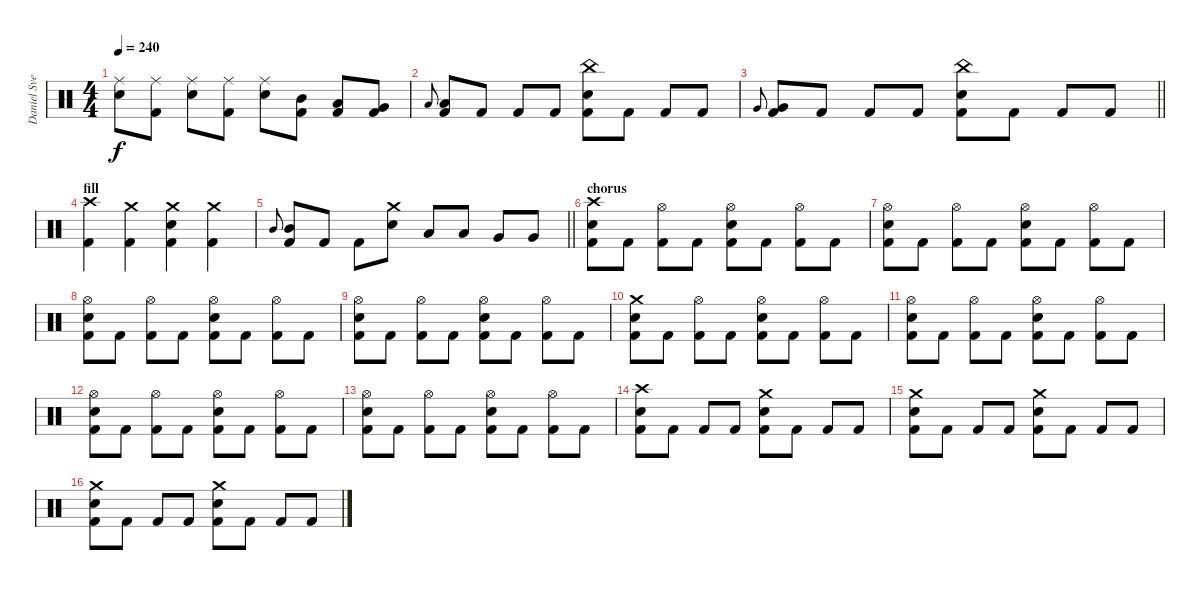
\track ("Daniel Svensson" "Daniel Sve") {instrument percussion}
\staff {score}
\articulation defaults
\ts (4 4)
\tempo 240
\clef neutral
\ks c
("Ride (middle)" "Electric Snare (hit)").8{dy f} ("Ride (middle)" "Kick (hit) 2").8 ("Ride (middle)" "Electric Snare (hit)").8 ("Ride (middle)" "Kick (hit) 2").8 ("Ride (middle)" "Electric Snare (hit)").8 ("Mid Tom (hit)" "Kick (hit) 2").8 ("Low Tom (hit)" "Kick (hit) 2").8 ("Very Low Tom (hit)" "Kick (hit) 2").8 |
"Low Tom (hit)".8{gr onbeat} ("Low Tom (hit)" "Kick (hit) 2").8 "Kick (hit) 2".8 "Kick (hit) 2".8 "Kick (hit) 2".8 ("China (hit)" "Electric Snare (hit)" "Kick (hit) 2").8 "Kick (hit) 2".8 "Kick (hit) 2".8 "Kick (hit) 2".8 |
\barLineRight lightlight "Very Low Tom (hit)".8{gr onbeat}
("Very Low Tom (hit)" "Kick (hit) 2").8 "Kick (hit) 2".8 "Kick (hit) 2".8 "Kick (hit) 2".8 ("China (hit)" "Electric Snare (hit)" "Kick (hit) 2").8 "Kick (hit) 2".8 "Kick (hit) 2".8 "Kick (hit) 2".8 |
\section ("" "fill")
("Crash high (hit)" "Kick (hit) 2").4 ("Crash medium (hit)" "Kick (hit) 2").4 ("Crash medium (hit)" "Electric Snare (hit)" "Kick (hit) 2").4 ("Crash medium (hit)" "Kick (hit) 2").4 |
\barLineRight lightlight "Mid Tom (hit)".8{gr onbeat}
("Mid Tom (hit)" "Kick (hit) 2").8 "Kick (hit) 2".8 "Kick (hit) 2".8 ("Crash medium (hit)" "Electric Snare (hit)").8 "Low Tom (hit)".8 "Low Tom (hit)".8 "Very Low Tom (hit)".8 "Very Low Tom (hit)".8 |
\section ("" "chorus")
("Crash high (hit)" "Electric Snare (hit)" "Kick (hit) 2").8 "Kick (hit) 2".8 ("Hi-Hat (open)" "Kick (hit) 2").8 "Kick (hit) 2".8 ("Hi-Hat (open)" "Electric Snare (hit)" "Kick (hit) 2").8 "Kick (hit) 2".8 ("Hi-Hat (open)" "Kick (hit) 2").8 "Kick (hit) 2".8 |
("Hi-Hat (open)" "Electric Snare (hit)" "Kick (hit) 2").8 "Kick (hit) 2".8 ("Hi-Hat (open)" "Kick (hit) 2").8 "Kick (hit) 2".8 ("Hi-Hat (open)" "Electric Snare (hit)" "Kick (hit) 2").8 "Kick (hit) 2".8 ("Hi-Hat (open)" "Kick (hit) 2").8 "Kick (hit) 2".8 |
("Hi-Hat (open)" "Electric Snare (hit)" "Kick (hit) 2").8 "Kick (hit) 2".8 ("Hi-Hat (open)" "Kick (hit) 2").8 "Kick (hit) 2".8 ("Hi-Hat (open)" "Electric Snare (hit)" "Kick (hit) 2").8 "Kick (hit) 2".8 ("Hi-Hat (open)" "Kick (hit) 2").8 "Kick (hit) 2".8 |
("Hi-Hat (open)" "Electric Snare (hit)" "Kick (hit) 2").8 "Kick (hit) 2".8 ("Hi-Hat (open)" "Kick (hit) 2").8 "Kick (hit) 2".8 ("Hi-Hat (open)" "Electric Snare (hit)" "Kick (hit) 2").8 "Kick (hit) 2".8 ("Hi-Hat (open)" "Kick (hit) 2").8 "Kick (hit) 2".8 |
("Crash medium (hit)" "Electric Snare (hit)" "Kick (hit) 2").8 "Kick (hit) 2".8 ("Hi-Hat (open)" "Kick (hit) 2").8 "Kick (hit) 2".8 ("Hi-Hat (open)" "Electric Snare (hit)" "Kick (hit) 2").8 "Kick (hit) 2".8 ("Hi-Hat (open)" "Kick (hit) 2").8 "Kick (hit) 2".8 |
("Hi-Hat (open)" "Electric Snare (hit)" "Kick (hit) 2").8 "Kick (hit) 2".8 ("Hi-Hat (open)" "Kick (hit) 2").8 "Kick (hit) 2".8 ("Hi-Hat (open)" "Electric Snare (hit)" "Kick (hit) 2").8 "Kick (hit) 2".8 ("Hi-Hat (open)" "Kick (hit) 2").8 "Kick (hit) 2".8 |
("Hi-Hat (open)" "Electric Snare (hit)" "Kick (hit) 2").8 "Kick (hit) 2".8 ("Hi-Hat (open)" "Kick (hit) 2").8 "Kick (hit) 2".8 ("Hi-Hat (open)" "Electric Snare (hit)" "Kick (hit) 2").8 "Kick (hit) 2".8 ("Hi-Hat (open)" "Kick (hit) 2").8 "Kick (hit) 2".8 |
("Hi-Hat (open)" "Electric Snare (hit)" "Kick (hit) 2").8 "Kick (hit) 2".8 ("Hi-Hat (open)" "Kick (hit) 2").8 "Kick (hit) 2".8 ("Hi-Hat (open)" "Electric Snare (hit)" "Kick (hit) 2").8 "Kick (hit) 2".8 ("Hi-Hat (open)" "Kick (hit) 2").8 "Kick (hit) 2".8 |
("Crash high (hit)" "Electric Snare (hit)" "Kick (hit) 2").8 "Kick (hit) 2".8 "Kick (hit) 2".8 "Kick (hit) 2".8 ("Crash medium (hit)" "Electric Snare (hit)" "Kick (hit) 2").8 "Kick (hit) 2".8 "Kick (hit) 2".8 "Kick (hit) 2".8 |
("Crash medium (hit)" "Electric Snare (hit)" "Kick (hit) 2").8 "Kick (hit) 2".8 "Kick (hit) 2".8 "Kick (hit) 2".8 ("Crash medium (hit)" "Electric Snare (hit)" "Kick (hit) 2").8 "Kick (hit) 2".8 "Kick (hit) 2".8 "Kick (hit) 2".8 |
("Crash medium (hit)" "Electric Snare (hit)" "Kick (hit) 2").8 "Kick (hit) 2".8 "Kick (hit) 2".8 "Kick (hit) 2".8 ("Crash medium (hit)" "Electric Snare (hit)" "Kick (hit) 2").8 "Kick (hit) 2".8 "Kick (hit) 2".8 "Kick (hit) 2".8
